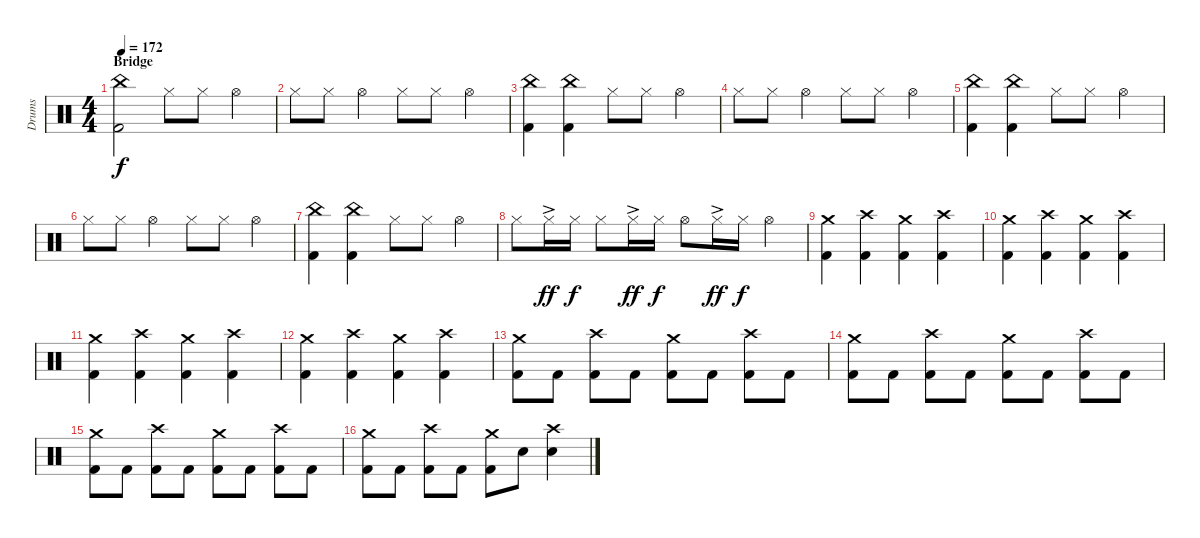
\track ("Drums" "Drums") {instrument percussion}
\staff {score}
\articulation defaults
\ts (4 4)
\section ("" "Bridge")
\tempo 172
\clef neutral
\ks c
("China (hit)" "Kick (hit) 2").2{dy f} "Hi-Hat (closed)".8 "Hi-Hat (closed)".8 "Hi-Hat (open)".4 |
"Hi-Hat (closed)".8 "Hi-Hat (closed)".8 "Hi-Hat (open)".4 "Hi-Hat (closed)".8 "Hi-Hat (closed)".8 "Hi-Hat (open)".4 |
("China (hit)" "Kick (hit) 2").4 ("China (hit)" "Kick (hit) 2").4 "Hi-Hat (closed)".8 "Hi-Hat (closed)".8 "Hi-Hat (open)".4 |
"Hi-Hat (closed)".8 "Hi-Hat (closed)".8 "Hi-Hat (open)".4 "Hi-Hat (closed)".8 "Hi-Hat (closed)".8 "Hi-Hat (open)".4 |
("China (hit)" "Kick (hit) 2").4 ("China (hit)" "Kick (hit) 2").4 "Hi-Hat (closed)".8 "Hi-Hat (closed)".8 "Hi-Hat (open)".4 |
"Hi-Hat (closed)".8 "Hi-Hat (closed)".8 "Hi-Hat (open)".4 "Hi-Hat (closed)".8 "Hi-Hat (closed)".8 "Hi-Hat (open)".4 |
("China (hit)" "Kick (hit) 2").4 ("China (hit)" "Kick (hit) 2").4 "Hi-Hat (closed)".8 "Hi-Hat (closed)".8 "Hi-Hat (open)".4 |
"Hi-Hat (closed)".8 "Hi-Hat (closed)"{ac}.16{dy ff} "Hi-Hat (closed)".16{dy f} "Hi-Hat (closed)".8 "Hi-Hat (closed)"{ac}.16{dy ff} "Hi-Hat (closed)".16{dy f} "Hi-Hat (open)".8 "Hi-Hat (closed)"{ac}.16{dy ff} "Hi-Hat (closed)".16{dy f} "Hi-Hat (open)".4 |
("Crash medium (hit)" "Kick (hit) 2").4 ("Crash high (hit)" "Kick (hit) 2").4 ("Crash medium (hit)" "Kick (hit) 2").4 ("Crash high (hit)" "Kick (hit) 2").4 |
("Crash medium (hit)" "Kick (hit) 2").4 ("Crash high (hit)" "Kick (hit) 2").4 ("Crash medium (hit)" "Kick (hit) 2").4 ("Crash high (hit)" "Kick (hit) 2").4 |
("Crash medium (hit)" "Kick (hit) 2").4 ("Crash high (hit)" "Kick (hit) 2").4 ("Crash medium (hit)" "Kick (hit) 2").4 ("Crash high (hit)" "Kick (hit) 2").4 |
("Crash medium (hit)" "Kick (hit) 2").4 ("Crash high (hit)" "Kick (hit) 2").4 ("Crash medium (hit)" "Kick (hit) 2").4 ("Crash high (hit)" "Kick (hit) 2").4 |
("Crash medium (hit)" "Kick (hit) 2").8 "Kick (hit) 2".8 ("Crash high (hit)" "Kick (hit) 2").8 "Kick (hit) 2".8 ("Crash medium (hit)" "Kick (hit) 2").8 "Kick (hit) 2".8 ("Crash high (hit)" "Kick (hit) 2").8 "Kick (hit) 2".8 |
("Crash medium (hit)" "Kick (hit) 2").8 "Kick (hit) 2".8 ("Crash high (hit)" "Kick (hit) 2").8 "Kick (hit) 2".8 ("Crash medium (hit)" "Kick (hit) 2").8 "Kick (hit) 2".8 ("Crash high (hit)" "Kick (hit) 2").8 "Kick (hit) 2".8 |
("Crash medium (hit)" "Kick (hit) 2").8 "Kick (hit) 2".8 ("Crash high (hit)" "Kick (hit) 2").8 "Kick (hit) 2".8 ("Crash medium (hit)" "Kick (hit) 2").8 "Kick (hit) 2".8 ("Crash high (hit)" "Kick (hit) 2").8 "Kick (hit) 2".8 |
("Crash medium (hit)" "Kick (hit) 2").8 "Kick (hit) 2".8 ("Crash high (hit)" "Kick (hit) 2").8 "Kick (hit) 2".8 ("Crash medium (hit)" "Kick (hit) 2").8 "Electric Snare (hit)".8 ("Crash high (hit)" "Electric Snare (hit)").4
